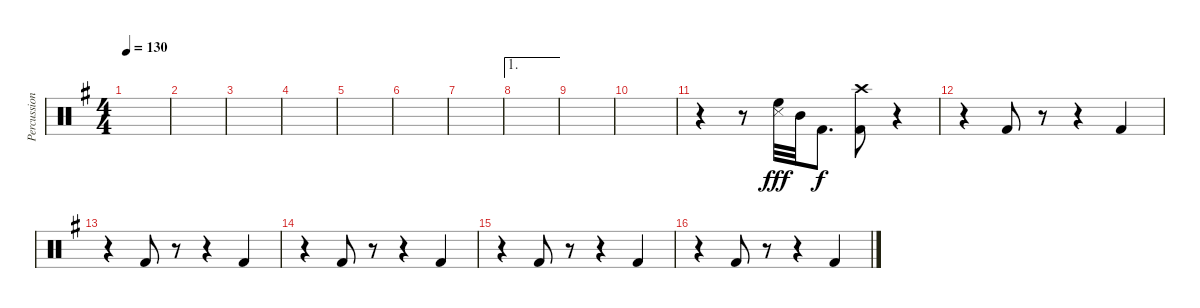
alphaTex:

\track ("Percussion" "Percussion") {instrument percussion}
\staff {score}
\articulation defaults
\ts (4 4)
\tempo 130
\clef neutral
\ks g
|
|
|
|
|
|
|
\ae 1
|
|
|
r.4 r.8 ("Snare (side stick) 3" "High Floor Tom (hit)").32{dy fff} "Mid Tom (hit)".32 "Kick (hit) 2".8{d dy f} ("Crash high (hit)" "Kick (hit) 2").8 r.4 |
r.4 "Kick (hit) 2".8 r.8 r.4 "Kick (hit) 2".4 |
r.4 "Kick (hit) 2".8 r.8 r.4 "Kick (hit) 2".4 |
r.4 "Kick (hit) 2".8 r.8 r.4 "Kick (hit) 2".4 |
r.4 "Kick (hit) 2".8 r.8 r.4 "Kick (hit) 2".4 |
r.4 "Kick (hit) 2".8 r.8 r.4 "Kick (hit) 2".4
